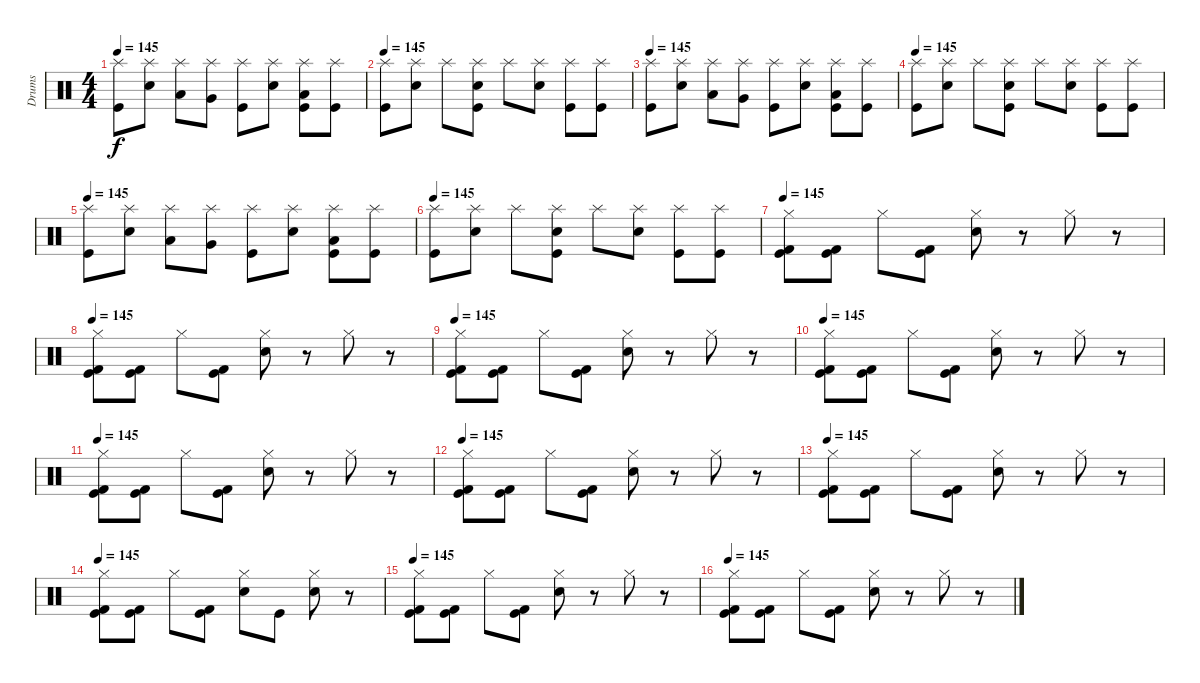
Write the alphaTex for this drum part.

\track ("Drums" "Drums") {instrument percussion}
\staff {score}
\articulation defaults
\ts (4 4)
\tempo 145
\clef neutral
\ks c
("Splash (hit)" "Kick (hit)").8{dy f} ("Splash (hit)" "Electric Snare (hit)").8 ("Splash (hit)" "Low Tom (hit)").8 ("Splash (hit)" "Very Low Tom (hit)").8 ("Splash (hit)" "Kick (hit)").8 ("Splash (hit)" "Electric Snare (hit)").8 ("Splash (hit)" "Kick (hit)" "Low Tom (hit)").8 ("Splash (hit)" "Kick (hit)").8 |
\tempo 145
("Splash (hit)" "Kick (hit)").8 ("Splash (hit)" "Electric Snare (hit)").8 "Splash (hit)".8 ("Splash (hit)" "Snare (hit) 2" "Kick (hit)").8 "Splash (hit)".8 ("Splash (hit)" "Electric Snare (hit)").8 ("Splash (hit)" "Kick (hit)").8 ("Splash (hit)" "Kick (hit)").8 |
\tempo 145
("Splash (hit)" "Kick (hit)").8 ("Splash (hit)" "Electric Snare (hit)").8 ("Splash (hit)" "Low Tom (hit)").8 ("Splash (hit)" "Very Low Tom (hit)").8 ("Splash (hit)" "Kick (hit)").8 ("Splash (hit)" "Electric Snare (hit)").8 ("Splash (hit)" "Kick (hit)" "Low Tom (hit)").8 ("Splash (hit)" "Kick (hit)").8 |
\tempo 145
("Splash (hit)" "Kick (hit)").8 ("Splash (hit)" "Electric Snare (hit)").8 "Splash (hit)".8 ("Splash (hit)" "Snare (hit) 2" "Kick (hit)").8 "Splash (hit)".8 ("Splash (hit)" "Electric Snare (hit)").8 ("Splash (hit)" "Kick (hit)").8 ("Splash (hit)" "Kick (hit)").8 |
\tempo 145
("Splash (hit)" "Kick (hit)").8 ("Splash (hit)" "Electric Snare (hit)").8 ("Splash (hit)" "Low Tom (hit)").8 ("Splash (hit)" "Very Low Tom (hit)").8 ("Splash (hit)" "Kick (hit)").8 ("Splash (hit)" "Electric Snare (hit)").8 ("Splash (hit)" "Kick (hit)" "Low Tom (hit)").8 ("Splash (hit)" "Kick (hit)").8 |
\tempo 145
("Splash (hit)" "Kick (hit)").8 ("Splash (hit)" "Electric Snare (hit)").8 "Splash (hit)".8 ("Splash (hit)" "Snare (hit) 2" "Kick (hit)").8 "Splash (hit)".8 ("Splash (hit)" "Electric Snare (hit)").8 ("Splash (hit)" "Kick (hit)").8 ("Splash (hit)" "Kick (hit)").8 |
\tempo 145
("Kick (hit) 2" "Hi-Hat (closed)" "Kick (hit)").8 ("Kick (hit) 2" "Kick (hit)").8 "Hi-Hat (closed)".8 ("Kick (hit) 2" "Kick (hit)").8 ("Electric Snare (hit)" "Hi-Hat (closed)").8 r.8 "Hi-Hat (closed)".8 r.8 |
\tempo 145
("Kick (hit) 2" "Hi-Hat (closed)" "Kick (hit)").8 ("Kick (hit) 2" "Kick (hit)").8 "Hi-Hat (closed)".8 ("Kick (hit) 2" "Kick (hit)").8 ("Electric Snare (hit)" "Hi-Hat (closed)").8 r.8 "Hi-Hat (closed)".8 r.8 |
\tempo 145
("Kick (hit) 2" "Hi-Hat (closed)" "Kick (hit)").8 ("Kick (hit)" "Kick (hit) 2").8 "Hi-Hat (closed)".8 ("Kick (hit) 2" "Kick (hit)").8 ("Electric Snare (hit)" "Hi-Hat (closed)").8 r.8 "Hi-Hat (closed)".8 r.8 |
\tempo 145
("Kick (hit) 2" "Hi-Hat (closed)" "Kick (hit)").8 ("Kick (hit) 2" "Kick (hit)").8 "Hi-Hat (closed)".8 ("Kick (hit) 2" "Kick (hit)").8 ("Electric Snare (hit)" "Hi-Hat (closed)").8 r.8 "Hi-Hat (closed)".8 r.8 |
\tempo 145
("Kick (hit) 2" "Hi-Hat (closed)" "Kick (hit)").8 ("Kick (hit) 2" "Kick (hit)").8 "Hi-Hat (closed)".8 ("Kick (hit) 2" "Kick (hit)").8 ("Electric Snare (hit)" "Hi-Hat (closed)").8 r.8 "Hi-Hat (closed)".8 r.8 |
\tempo 145
("Kick (hit) 2" "Hi-Hat (closed)" "Kick (hit)").8 ("Kick (hit) 2" "Kick (hit)").8 "Hi-Hat (closed)".8 ("Kick (hit) 2" "Kick (hit)").8 ("Electric Snare (hit)" "Hi-Hat (closed)").8 r.8 "Hi-Hat (closed)".8 r.8 |
\tempo 145
("Kick (hit) 2" "Hi-Hat (closed)" "Kick (hit)").8 ("Kick (hit)" "Kick (hit) 2").8 "Hi-Hat (closed)".8 ("Kick (hit) 2" "Kick (hit)").8 ("Electric Snare (hit)" "Hi-Hat (closed)").8 r.8 "Hi-Hat (closed)".8 r.8 |
\tempo 145
("Kick (hit) 2" "Hi-Hat (closed)" "Kick (hit)").8 ("Kick (hit) 2" "Kick (hit)").8 "Hi-Hat (closed)".8 ("Kick (hit) 2" "Kick (hit)").8 ("Electric Snare (hit)" "Hi-Hat (closed)").8 "Kick (hit)".8 ("Snare (hit) 2" "Hi-Hat (closed)").8 r.8 |
\tempo 145
("Kick (hit) 2" "Hi-Hat (closed)" "Kick (hit)").8 ("Kick (hit) 2" "Kick (hit)").8 "Hi-Hat (closed)".8 ("Kick (hit) 2" "Kick (hit)").8 ("Electric Snare (hit)" "Hi-Hat (closed)").8 r.8 "Hi-Hat (closed)".8 r.8 |
\tempo 145
("Kick (hit) 2" "Hi-Hat (closed)" "Kick (hit)").8 ("Kick (hit) 2" "Kick (hit)").8 "Hi-Hat (closed)".8 ("Kick (hit) 2" "Kick (hit)").8 ("Electric Snare (hit)" "Hi-Hat (closed)").8 r.8 "Hi-Hat (closed)".8 r.8
